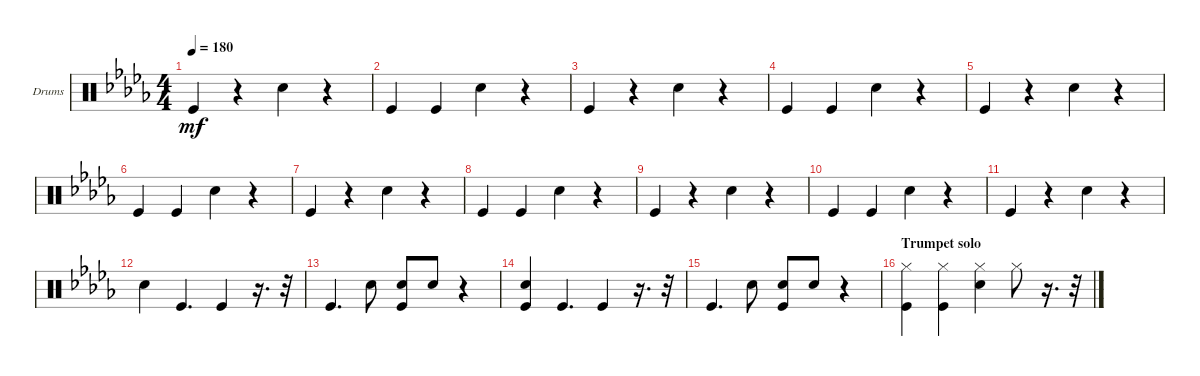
\bracketExtendMode groupsimilarinstruments
\firstSystemTrackNameOrientation horizontal
\otherSystemsTrackNameOrientation horizontal
\track ("Drums" "Drums") {instrument percussion}
\staff {score}
\articulation defaults
\ts (4 4)
\tempo 180
\clef neutral
\ks bbminor "Kick (hit)".4{dy mf}
r.4 "Snare (hit) 2".4 r.4 |
"Kick (hit)".4 "Kick (hit)".4 "Snare (hit) 2".4 r.4 |
"Kick (hit)".4 r.4 "Snare (hit) 2".4 r.4 |
"Kick (hit)".4 "Kick (hit)".4 "Snare (hit) 2".4 r.4 |
"Kick (hit)".4 r.4 "Snare (hit) 2".4 r.4 |
"Kick (hit)".4 "Kick (hit)".4 "Snare (hit) 2".4 r.4 |
"Kick (hit)".4 r.4 "Snare (hit) 2".4 r.4 |
"Kick (hit)".4 "Kick (hit)".4 "Snare (hit) 2".4 r.4 |
"Kick (hit)".4 r.4 "Snare (hit) 2".4 r.4 |
"Kick (hit)".4 "Kick (hit)".4 "Snare (hit) 2".4 r.4 |
"Kick (hit)".4 r.4 "Snare (hit) 2".4 r.4 |
"Snare (hit) 2".4 "Kick (hit)".4{d} "Kick (hit)".4 r.16{d} r.32 |
"Kick (hit)".4{d} "Snare (hit) 2".8 ("Kick (hit)" "Snare (hit) 2").8 "Snare (hit) 2".8 r.4 |
("Kick (hit)" "Snare (hit) 2").4 "Kick (hit)".4{d} "Kick (hit)".4 r.16{d} r.32 |
"Kick (hit)".4{d} "Snare (hit) 2".8 ("Kick (hit)" "Snare (hit) 2").8 "Snare (hit) 2".8 r.4 |
\section ("" "Trumpet solo")
("Hi-Hat (closed)" "Kick (hit)").4 ("Kick (hit)" "Hi-Hat (closed)").4 ("Snare (hit) 2" "Hi-Hat (closed)").4 "Hi-Hat (closed)".8 r.16{d} r.32
